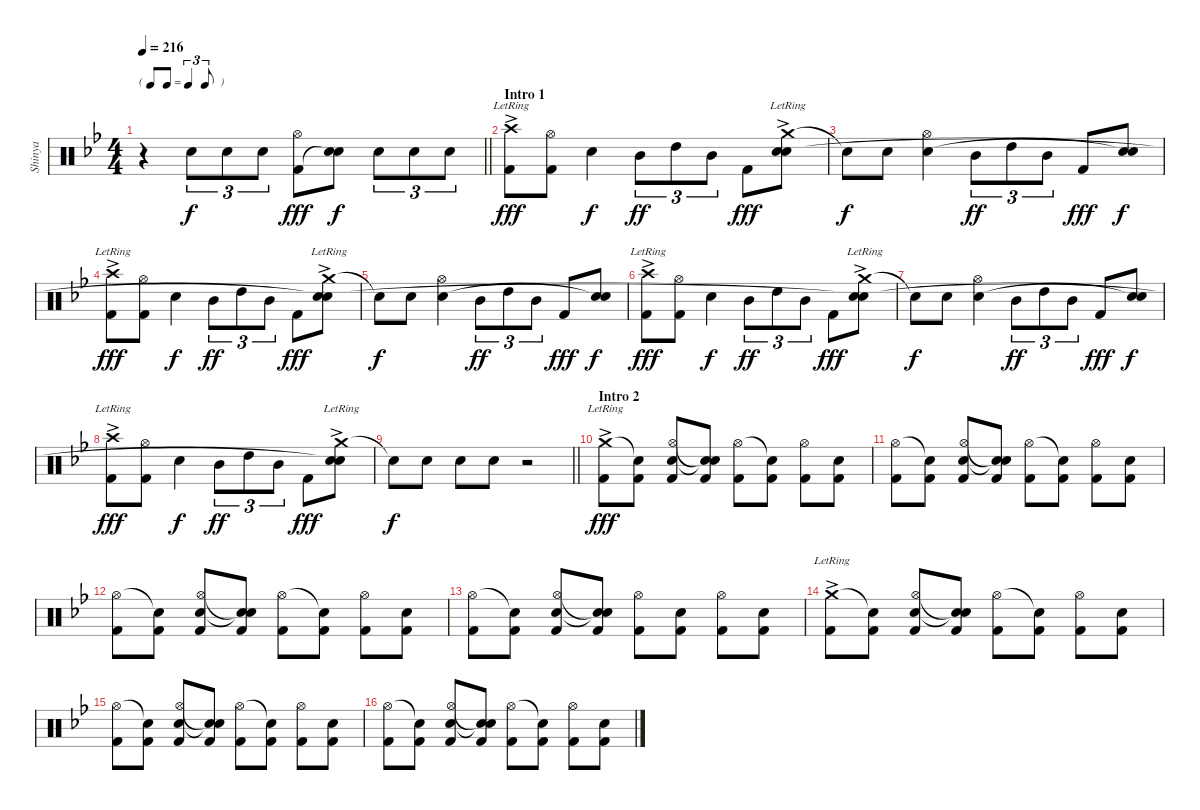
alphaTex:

\track ("Shinya" "Shinya") {instrument percussion}
\staff {score}
\articulation defaults
\ts (4 4)
\tf triplet8th
\tempo 216
\clef neutral
\barLineRight lightlight
\ks bb
r.4{dy f} "Electric Snare (hit)".8{tu (3 2)} "Electric Snare (hit)".8{tu (3 2)} "Electric Snare (hit)".8{tu (3 2)} ("Hi-Hat (open)" "Kick (hit) 2").8{dy fff} ("Electric Snare (hit)" "Snare (hit)"{t}).8{dy f} "Electric Snare (hit)".8{tu (3 2)} "Electric Snare (hit)".8{tu (3 2)} "Electric Snare (hit)".8{tu (3 2)} |
\section ("" "Intro 1")
("Crash high (hit)"{ac lr} "Kick (hit) 2").8{dy fff} ("Hi-Hat (open)" "Kick (hit) 2").8 "Electric Snare (hit)".4{dy f} "Mid Tom (hit)".8{tu (3 2) dy ff} "High Tom (hit)".8{tu (3 2)} "Mid Tom (hit)".8{tu (3 2)} "Kick (hit) 2".8{dy fff} ("Crash medium (hit)"{ac lr} "Electric Snare (hit)" "Snare (hit)").8 |
"Snare (hit)"{t}.8{dy f} "Electric Snare (hit)".8 ("Hi-Hat (open)" "Electric Snare (hit)").4 "Mid Tom (hit)".8{tu (3 2) dy ff} "High Tom (hit)".8{tu (3 2)} "Mid Tom (hit)".8{tu (3 2)} "Kick (hit) 2".8{dy fff} ("Electric Snare (hit)" "Snare (hit)"{t}).8{dy f} |
("Crash high (hit)"{ac lr} "Kick (hit) 2").8{dy fff} ("Hi-Hat (open)" "Kick (hit) 2").8 "Electric Snare (hit)".4{dy f} "Mid Tom (hit)".8{tu (3 2) dy ff} "High Tom (hit)".8{tu (3 2)} "Mid Tom (hit)".8{tu (3 2)} "Kick (hit) 2".8{dy fff} ("Crash medium (hit)"{ac lr} "Electric Snare (hit)" "Snare (hit)"{t}).8 |
"Snare (hit)"{t}.8{dy f} "Electric Snare (hit)".8 ("Hi-Hat (open)" "Electric Snare (hit)").4 "Mid Tom (hit)".8{tu (3 2) dy ff} "High Tom (hit)".8{tu (3 2)} "Mid Tom (hit)".8{tu (3 2)} "Kick (hit) 2".8{dy fff} ("Electric Snare (hit)" "Snare (hit)"{t}).8{dy f} |
("Crash high (hit)"{ac lr} "Kick (hit) 2").8{dy fff} ("Hi-Hat (open)" "Kick (hit) 2").8 "Electric Snare (hit)".4{dy f} "Mid Tom (hit)".8{tu (3 2) dy ff} "High Tom (hit)".8{tu (3 2)} "Mid Tom (hit)".8{tu (3 2)} "Kick (hit) 2".8{dy fff} ("Crash medium (hit)"{ac lr} "Electric Snare (hit)" "Snare (hit)"{t}).8 |
"Snare (hit)"{t}.8{dy f} "Electric Snare (hit)".8 ("Hi-Hat (open)" "Electric Snare (hit)").4 "Mid Tom (hit)".8{tu (3 2) dy ff} "High Tom (hit)".8{tu (3 2)} "Mid Tom (hit)".8{tu (3 2)} "Kick (hit) 2".8{dy fff} ("Electric Snare (hit)" "Snare (hit)"{t}).8{dy f} |
("Crash high (hit)"{ac lr} "Kick (hit) 2").8{dy fff} ("Hi-Hat (open)" "Kick (hit) 2").8 "Electric Snare (hit)".4{dy f} "Mid Tom (hit)".8{tu (3 2) dy ff} "High Tom (hit)".8{tu (3 2)} "Mid Tom (hit)".8{tu (3 2)} "Kick (hit) 2".8{dy fff} ("Crash medium (hit)"{ac lr} "Electric Snare (hit)" "Snare (hit)"{t}).8 |
\barLineRight lightlight "Snare (hit)"{t}.8{dy f} "Electric Snare (hit)".8 "Electric Snare (hit)".8 "Electric Snare (hit)".8
r.2 |
\section ("" "Intro 2")
("Crash medium (hit)"{ac lr} "Kick (hit) 2").8{dy fff} ("Snare (hit)"{t} "Kick (hit) 2").8 ("Hi-Hat (open)" "Electric Snare (hit)" "Kick (hit) 2").8 ("Snare (hit)"{t} "Snare (hit)"{t} "Kick (hit) 2").8 ("Hi-Hat (open)" "Kick (hit) 2").8 ("Snare (hit)"{t} "Kick (hit) 2").8 ("Hi-Hat (open)" "Kick (hit) 2").8 ("Electric Snare (hit)" "Kick (hit) 2").8 |
("Hi-Hat (open)" "Kick (hit) 2").8 ("Snare (hit)"{t} "Kick (hit) 2").8 ("Hi-Hat (open)" "Electric Snare (hit)" "Kick (hit) 2").8 ("Snare (hit)"{t} "Snare (hit)"{t} "Kick (hit) 2").8 ("Hi-Hat (open)" "Kick (hit) 2").8 ("Snare (hit)"{t} "Kick (hit) 2").8 ("Hi-Hat (open)" "Kick (hit) 2").8 ("Electric Snare (hit)" "Kick (hit) 2").8 |
("Hi-Hat (open)" "Kick (hit) 2").8 ("Snare (hit)"{t} "Kick (hit) 2").8 ("Hi-Hat (open)" "Electric Snare (hit)" "Kick (hit) 2").8 ("Snare (hit)"{t} "Snare (hit)"{t} "Kick (hit) 2").8 ("Hi-Hat (open)" "Kick (hit) 2").8 ("Snare (hit)"{t} "Kick (hit) 2").8 ("Hi-Hat (open)" "Kick (hit) 2").8 ("Electric Snare (hit)" "Kick (hit) 2").8 |
("Hi-Hat (open)" "Kick (hit) 2").8 ("Snare (hit)"{t} "Kick (hit) 2").8 ("Hi-Hat (open)" "Electric Snare (hit)" "Kick (hit) 2").8 ("Snare (hit)"{t} "Snare (hit)"{t} "Kick (hit) 2").8 ("Hi-Hat (open)" "Kick (hit) 2").8 ("Electric Snare (hit)" "Kick (hit) 2").8 ("Hi-Hat (open)" "Kick (hit) 2").8 ("Electric Snare (hit)" "Kick (hit) 2").8 |
("Crash medium (hit)"{ac lr} "Kick (hit) 2").8 ("Snare (hit)"{t} "Kick (hit) 2").8 ("Hi-Hat (open)" "Electric Snare (hit)" "Kick (hit) 2").8 ("Snare (hit)"{t} "Snare (hit)"{t} "Kick (hit) 2").8 ("Hi-Hat (open)" "Kick (hit) 2").8 ("Snare (hit)"{t} "Kick (hit) 2").8 ("Hi-Hat (open)" "Kick (hit) 2").8 ("Electric Snare (hit)" "Kick (hit) 2").8 |
("Hi-Hat (open)" "Kick (hit) 2").8 ("Snare (hit)"{t} "Kick (hit) 2").8 ("Hi-Hat (open)" "Electric Snare (hit)" "Kick (hit) 2").8 ("Snare (hit)"{t} "Snare (hit)"{t} "Kick (hit) 2").8 ("Hi-Hat (open)" "Kick (hit) 2").8 ("Snare (hit)"{t} "Kick (hit) 2").8 ("Hi-Hat (open)" "Kick (hit) 2").8 ("Electric Snare (hit)" "Kick (hit) 2").8 |
("Hi-Hat (open)" "Kick (hit) 2").8 ("Snare (hit)"{t} "Kick (hit) 2").8 ("Hi-Hat (open)" "Electric Snare (hit)" "Kick (hit) 2").8 ("Snare (hit)"{t} "Snare (hit)"{t} "Kick (hit) 2").8 ("Hi-Hat (open)" "Kick (hit) 2").8 ("Snare (hit)"{t} "Kick (hit) 2").8 ("Hi-Hat (open)" "Kick (hit) 2").8 ("Electric Snare (hit)" "Kick (hit) 2").8
